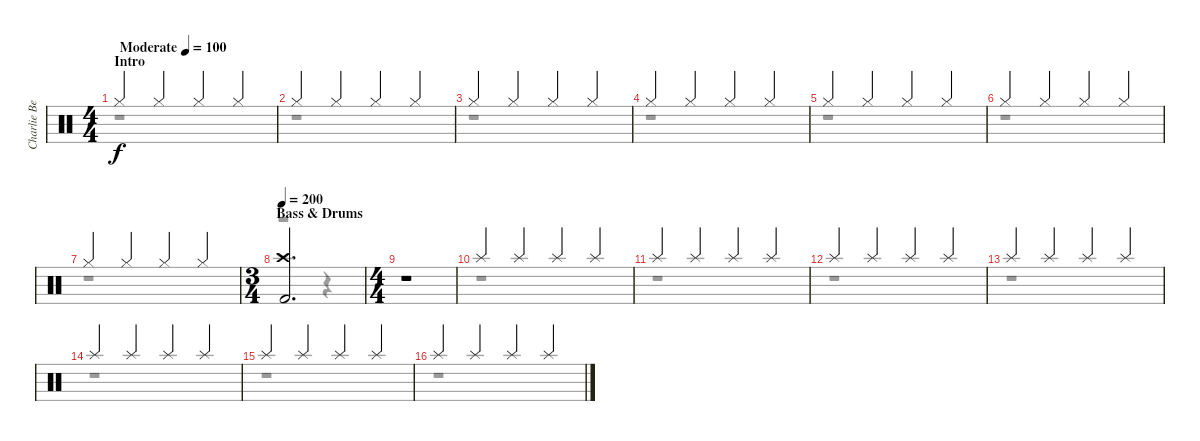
\track ("Charlie Benante" "Charlie Be") {instrument percussion}
\staff {score}
\articulation defaults
\voice
\ts (4 4)
\section ("" "Intro")
\tempo (100 "Moderate")
\tempo 94
\tempo (100 "Moderate")
\clef neutral
\ks c "Hi-Hat (closed)".4{dy f} "Hi-Hat (closed)".4 "Hi-Hat (closed)".4 "Hi-Hat (closed)".4
|
"Hi-Hat (closed)".4 "Hi-Hat (closed)".4 "Hi-Hat (closed)".4 "Hi-Hat (closed)".4 |
"Hi-Hat (closed)".4 "Hi-Hat (closed)".4 "Hi-Hat (closed)".4 "Hi-Hat (closed)".4 |
"Hi-Hat (closed)".4 "Hi-Hat (closed)".4 "Hi-Hat (closed)".4 "Hi-Hat (closed)".4 |
"Hi-Hat (closed)".4 "Hi-Hat (closed)".4 "Hi-Hat (closed)".4 "Hi-Hat (closed)".4 |
"Hi-Hat (closed)".4 "Hi-Hat (closed)".4 "Hi-Hat (closed)".4 "Hi-Hat (closed)".4 |
"Hi-Hat (closed)".4 "Hi-Hat (closed)".4 "Hi-Hat (closed)".4 "Hi-Hat (closed)".4 |
\ts (3 4)
\section ("" "Bass & Drums")
\tempo 200
("Crash high (hit)" "Kick (hit) 2").2{d} |
\ts (4 4)
r.1 |
"Splash (hit)".4 "Splash (hit)".4 "Splash (hit)".4 "Splash (hit)".4 |
"Splash (hit)".4 "Splash (hit)".4 "Splash (hit)".4 "Splash (hit)".4 |
"Splash (hit)".4 "Splash (hit)".4 "Splash (hit)".4 "Splash (hit)".4 |
"Splash (hit)".4 "Splash (hit)".4 "Splash (hit)".4 "Splash (hit)".4 |
"Splash (hit)".4 "Splash (hit)".4 "Splash (hit)".4 "Splash (hit)".4 |
"Splash (hit)".4 "Splash (hit)".4 "Splash (hit)".4 "Splash (hit)".4 |
"Splash (hit)".4 "Splash (hit)".4 "Splash (hit)".4 "Splash (hit)".4
\voice
\clef neutral
\ottava regular
\simile none
\ks c
r.1{dy f} |
r.1 |
r.1 |
r.1 |
r.1 |
r.1 |
r.1 |
r.2 r.4 |
r.1 |
r.1 |
r.1 |
r.1 |
r.1 |
r.1 |
r.1 |
r.1
